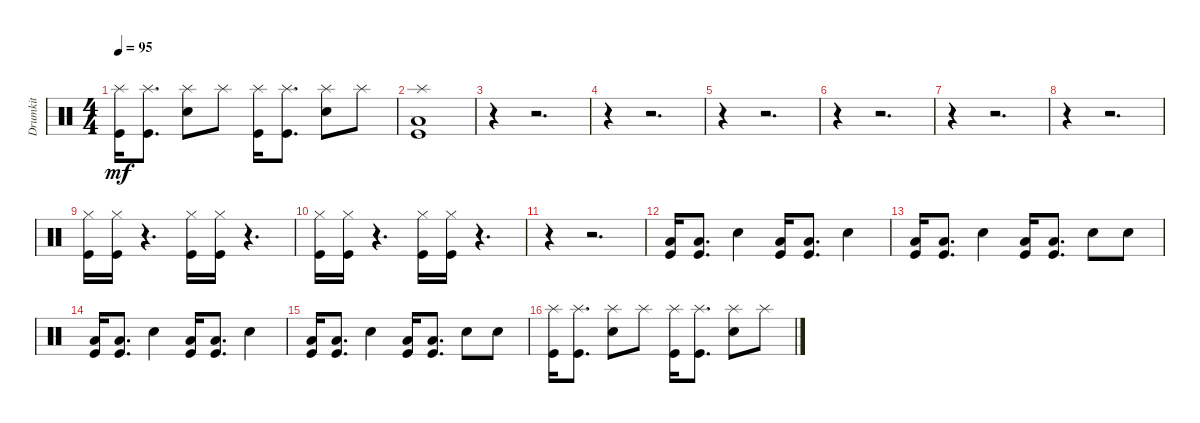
\track ("Drumkit" "Drumkit") {instrument percussion}
\staff {score}
\articulation defaults
\ts (4 4)
\tempo 95
\clef neutral
\ks c
("Kick (hit)" "Splash (hit)").16{dy mf} ("Kick (hit)" "Splash (hit)").8{d} ("Snare (hit) 2" "Splash (hit)").8 "Splash (hit)".8 ("Kick (hit)" "Splash (hit)").16 ("Kick (hit)" "Splash (hit)").8{d} ("Snare (hit) 2" "Splash (hit)").8 "Splash (hit)".8 |
("Kick (hit)" "Low Floor Tom (hit)" "Splash (hit)").1 |
r.4 r.2{d} |
r.4 r.2{d} |
r.4 r.2{d} |
r.4 r.2{d} |
r.4 r.2{d} |
r.4 r.2{d} |
("Kick (hit)" "Hi-Hat (closed)").16 ("Kick (hit)" "Hi-Hat (closed)").16 r.4{d} ("Kick (hit)" "Hi-Hat (closed)").16 ("Kick (hit)" "Hi-Hat (closed)").16 r.4{d} |
("Kick (hit)" "Hi-Hat (closed)").16 ("Kick (hit)" "Hi-Hat (closed)").16 r.4{d} ("Kick (hit)" "Hi-Hat (closed)").16 ("Kick (hit)" "Hi-Hat (closed)").16 r.4{d} |
r.4 r.2{d} |
("Kick (hit)" "Low Floor Tom (hit)").16 ("Kick (hit)" "Low Floor Tom (hit)").8{d} "Snare (hit) 2".4 ("Kick (hit)" "Low Floor Tom (hit)").16 ("Kick (hit)" "Low Floor Tom (hit)").8{d} "Snare (hit) 2".4 |
("Kick (hit)" "Low Floor Tom (hit)").16 ("Kick (hit)" "Low Floor Tom (hit)").8{d} "Snare (hit) 2".4 ("Kick (hit)" "Low Floor Tom (hit)").16 ("Kick (hit)" "Low Floor Tom (hit)").8{d} "Snare (hit) 2".8 "Snare (hit) 2".8 |
("Kick (hit)" "Low Floor Tom (hit)").16 ("Kick (hit)" "Low Floor Tom (hit)").8{d} "Snare (hit) 2".4 ("Kick (hit)" "Low Floor Tom (hit)").16 ("Kick (hit)" "Low Floor Tom (hit)").8{d} "Snare (hit) 2".4 |
("Kick (hit)" "Low Floor Tom (hit)").16 ("Kick (hit)" "Low Floor Tom (hit)").8{d} "Snare (hit) 2".4 ("Kick (hit)" "Low Floor Tom (hit)").16 ("Kick (hit)" "Low Floor Tom (hit)").8{d} "Snare (hit) 2".8 "Snare (hit) 2".8 |
("Kick (hit)" "Splash (hit)").16 ("Kick (hit)" "Splash (hit)").8{d} ("Snare (hit) 2" "Splash (hit)").8 "Splash (hit)".8 ("Kick (hit)" "Splash (hit)").16 ("Kick (hit)" "Splash (hit)").8{d} ("Snare (hit) 2" "Splash (hit)").8 "Splash (hit)".8
